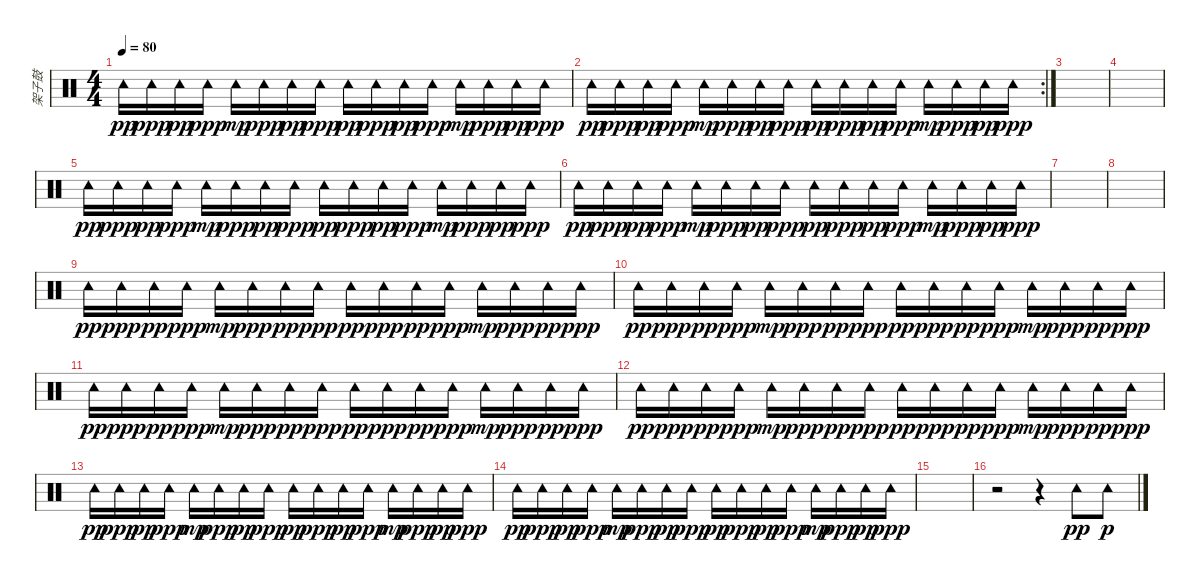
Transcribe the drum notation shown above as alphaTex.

\track ("架子鼓" "架子鼓") {instrument percussion}
\staff {score}
\articulation defaults
\ts (4 4)
\tempo 80
\clef neutral
\ks c "Tambourine (hit)".16{dy pp} "Tambourine (hit)".16{dy ppp} "Tambourine (hit)".16{dy pp} "Tambourine (hit)".16{dy ppp} "Tambourine (hit)".16{dy mp} "Tambourine (hit)".16{dy ppp} "Tambourine (hit)".16{dy pp} "Tambourine (hit)".16{dy ppp} "Tambourine (hit)".16{dy pp} "Tambourine (hit)".16{dy ppp} "Tambourine (hit)".16{dy pp} "Tambourine (hit)".16{dy ppp} "Tambourine (hit)".16{dy mp} "Tambourine (hit)".16{dy ppp} "Tambourine (hit)".16{dy pp} "Tambourine (hit)".16{dy ppp}
|
\rc 2 "Tambourine (hit)".16{dy pp} "Tambourine (hit)".16{dy ppp} "Tambourine (hit)".16{dy pp} "Tambourine (hit)".16{dy ppp} "Tambourine (hit)".16{dy mp} "Tambourine (hit)".16{dy ppp} "Tambourine (hit)".16{dy pp} "Tambourine (hit)".16{dy ppp} "Tambourine (hit)".16{dy pp} "Tambourine (hit)".16{dy ppp} "Tambourine (hit)".16{dy pp} "Tambourine (hit)".16{dy ppp} "Tambourine (hit)".16{dy mp} "Tambourine (hit)".16{dy ppp} "Tambourine (hit)".16{dy pp} "Tambourine (hit)".16{dy ppp}
|
|
|
"Tambourine (hit)".16{dy pp} "Tambourine (hit)".16{dy ppp} "Tambourine (hit)".16{dy pp} "Tambourine (hit)".16{dy ppp} "Tambourine (hit)".16{dy mp} "Tambourine (hit)".16{dy ppp} "Tambourine (hit)".16{dy pp} "Tambourine (hit)".16{dy ppp} "Tambourine (hit)".16{dy pp} "Tambourine (hit)".16{dy ppp} "Tambourine (hit)".16{dy pp} "Tambourine (hit)".16{dy ppp} "Tambourine (hit)".16{dy mp} "Tambourine (hit)".16{dy ppp} "Tambourine (hit)".16{dy pp} "Tambourine (hit)".16{dy ppp} |
"Tambourine (hit)".16{dy pp} "Tambourine (hit)".16{dy ppp} "Tambourine (hit)".16{dy pp} "Tambourine (hit)".16{dy ppp} "Tambourine (hit)".16{dy mp} "Tambourine (hit)".16{dy ppp} "Tambourine (hit)".16{dy pp} "Tambourine (hit)".16{dy ppp} "Tambourine (hit)".16{dy pp} "Tambourine (hit)".16{dy ppp} "Tambourine (hit)".16{dy pp} "Tambourine (hit)".16{dy ppp} "Tambourine (hit)".16{dy mp} "Tambourine (hit)".16{dy ppp} "Tambourine (hit)".16{dy pp} "Tambourine (hit)".16{dy ppp} |
|
|
"Tambourine (hit)".16{dy pp} "Tambourine (hit)".16{dy ppp} "Tambourine (hit)".16{dy pp} "Tambourine (hit)".16{dy ppp} "Tambourine (hit)".16{dy mp} "Tambourine (hit)".16{dy ppp} "Tambourine (hit)".16{dy pp} "Tambourine (hit)".16{dy ppp} "Tambourine (hit)".16{dy pp} "Tambourine (hit)".16{dy ppp} "Tambourine (hit)".16{dy pp} "Tambourine (hit)".16{dy ppp} "Tambourine (hit)".16{dy mp} "Tambourine (hit)".16{dy ppp} "Tambourine (hit)".16{dy pp} "Tambourine (hit)".16{dy ppp} |
"Tambourine (hit)".16{dy pp} "Tambourine (hit)".16{dy ppp} "Tambourine (hit)".16{dy pp} "Tambourine (hit)".16{dy ppp} "Tambourine (hit)".16{dy mp} "Tambourine (hit)".16{dy ppp} "Tambourine (hit)".16{dy pp} "Tambourine (hit)".16{dy ppp} "Tambourine (hit)".16{dy pp} "Tambourine (hit)".16{dy ppp} "Tambourine (hit)".16{dy pp} "Tambourine (hit)".16{dy ppp} "Tambourine (hit)".16{dy mp} "Tambourine (hit)".16{dy ppp} "Tambourine (hit)".16{dy pp} "Tambourine (hit)".16{dy ppp} |
"Tambourine (hit)".16{dy pp} "Tambourine (hit)".16{dy ppp} "Tambourine (hit)".16{dy pp} "Tambourine (hit)".16{dy ppp} "Tambourine (hit)".16{dy mp} "Tambourine (hit)".16{dy ppp} "Tambourine (hit)".16{dy pp} "Tambourine (hit)".16{dy ppp} "Tambourine (hit)".16{dy pp} "Tambourine (hit)".16{dy ppp} "Tambourine (hit)".16{dy pp} "Tambourine (hit)".16{dy ppp} "Tambourine (hit)".16{dy mp} "Tambourine (hit)".16{dy ppp} "Tambourine (hit)".16{dy pp} "Tambourine (hit)".16{dy ppp} |
"Tambourine (hit)".16{dy pp} "Tambourine (hit)".16{dy ppp} "Tambourine (hit)".16{dy pp} "Tambourine (hit)".16{dy ppp} "Tambourine (hit)".16{dy mp} "Tambourine (hit)".16{dy ppp} "Tambourine (hit)".16{dy pp} "Tambourine (hit)".16{dy ppp} "Tambourine (hit)".16{dy pp} "Tambourine (hit)".16{dy ppp} "Tambourine (hit)".16{dy pp} "Tambourine (hit)".16{dy ppp} "Tambourine (hit)".16{dy mp} "Tambourine (hit)".16{dy ppp} "Tambourine (hit)".16{dy pp} "Tambourine (hit)".16{dy ppp} |
"Tambourine (hit)".16{dy pp} "Tambourine (hit)".16{dy ppp} "Tambourine (hit)".16{dy pp} "Tambourine (hit)".16{dy ppp} "Tambourine (hit)".16{dy mp} "Tambourine (hit)".16{dy ppp} "Tambourine (hit)".16{dy pp} "Tambourine (hit)".16{dy ppp} "Tambourine (hit)".16{dy pp} "Tambourine (hit)".16{dy ppp} "Tambourine (hit)".16{dy pp} "Tambourine (hit)".16{dy ppp} "Tambourine (hit)".16{dy mp} "Tambourine (hit)".16{dy ppp} "Tambourine (hit)".16{dy pp} "Tambourine (hit)".16{dy ppp} |
"Tambourine (hit)".16{dy pp} "Tambourine (hit)".16{dy ppp} "Tambourine (hit)".16{dy pp} "Tambourine (hit)".16{dy ppp} "Tambourine (hit)".16{dy mp} "Tambourine (hit)".16{dy ppp} "Tambourine (hit)".16{dy pp} "Tambourine (hit)".16{dy ppp} "Tambourine (hit)".16{dy pp} "Tambourine (hit)".16{dy ppp} "Tambourine (hit)".16{dy pp} "Tambourine (hit)".16{dy ppp} "Tambourine (hit)".16{dy mp} "Tambourine (hit)".16{dy ppp} "Tambourine (hit)".16{dy pp} "Tambourine (hit)".16{dy ppp} |
|
r.2 r.4 "Tambourine (hit)".8{dy pp} "Tambourine (hit)".8{dy p}
